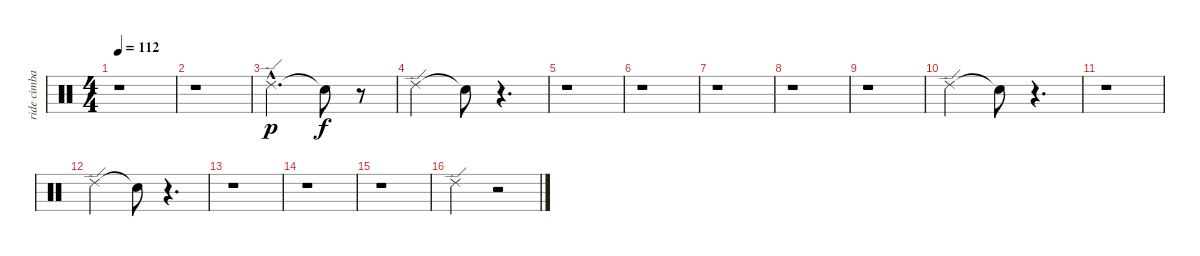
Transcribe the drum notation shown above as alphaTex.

\track ("ride cimbal" "ride cimba") {instrument percussion}
\staff {score}
\articulation defaults
\ts (4 4)
\tempo 112
\clef neutral
\ks c
r.1{dy f} |
r.1 |
"Ride (edge) 2"{hac}.2{d dy p} "Snare (hit)"{t}.8{dy f} r.8 |
"Ride (edge) 2".2 "Snare (hit)"{t}.8 r.4{d} |
r.1 |
r.1 |
r.1 |
r.1 |
r.1 |
"Ride (edge) 2".2 "Snare (hit)"{t}.8 r.4{d} |
r.1 |
"Ride (edge) 2".2 "Snare (hit)"{t}.8 r.4{d} |
r.1 |
r.1 |
r.1 |
"Ride (edge) 2".2 r.2
